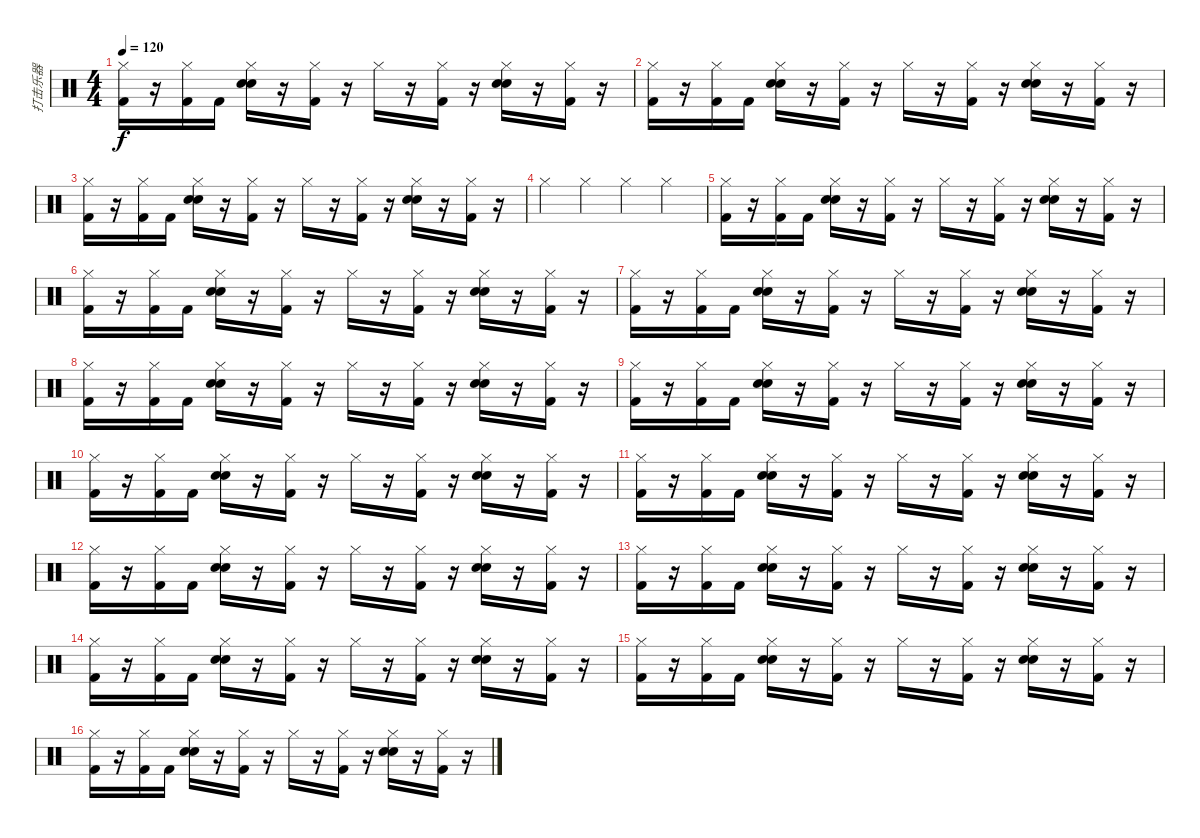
\track ("打击乐器" "打击乐器") {instrument percussion}
\staff {score}
\articulation defaults
\ts (4 4)
\tempo 120
\clef neutral
\ks c
("Hi-Hat (closed)" "Kick (hit) 2").16{dy f} r.16 ("Hi-Hat (closed)" "Kick (hit) 2").16 "Kick (hit) 2".16 ("Hi-Hat (closed)" "Electric Snare (hit)" "Snare (hit) 2").16 r.16 ("Hi-Hat (closed)" "Kick (hit) 2").16 r.16 "Hi-Hat (closed)".16 r.16 ("Hi-Hat (closed)" "Kick (hit) 2").16 r.16 ("Hi-Hat (closed)" "Electric Snare (hit)" "Snare (hit) 2").16 r.16 ("Hi-Hat (closed)" "Kick (hit) 2").16 r.16 |
("Hi-Hat (closed)" "Kick (hit) 2").16 r.16 ("Hi-Hat (closed)" "Kick (hit) 2").16 "Kick (hit) 2".16 ("Hi-Hat (closed)" "Electric Snare (hit)" "Snare (hit) 2").16 r.16 ("Hi-Hat (closed)" "Kick (hit) 2").16 r.16 "Hi-Hat (closed)".16 r.16 ("Hi-Hat (closed)" "Kick (hit) 2").16 r.16 ("Hi-Hat (closed)" "Electric Snare (hit)" "Snare (hit) 2").16 r.16 ("Hi-Hat (closed)" "Kick (hit) 2").16 r.16 |
("Hi-Hat (closed)" "Kick (hit) 2").16 r.16 ("Hi-Hat (closed)" "Kick (hit) 2").16 "Kick (hit) 2".16 ("Hi-Hat (closed)" "Electric Snare (hit)" "Snare (hit) 2").16 r.16 ("Hi-Hat (closed)" "Kick (hit) 2").16 r.16 "Hi-Hat (closed)".16 r.16 ("Hi-Hat (closed)" "Kick (hit) 2").16 r.16 ("Hi-Hat (closed)" "Electric Snare (hit)" "Snare (hit) 2").16 r.16 ("Hi-Hat (closed)" "Kick (hit) 2").16 r.16 |
"Hi-Hat (closed)".4 "Hi-Hat (closed)".4 "Hi-Hat (closed)".4 "Hi-Hat (closed)".4 |
("Hi-Hat (closed)" "Kick (hit) 2").16 r.16 ("Hi-Hat (closed)" "Kick (hit) 2").16 "Kick (hit) 2".16 ("Hi-Hat (closed)" "Electric Snare (hit)" "Snare (hit) 2").16 r.16 ("Hi-Hat (closed)" "Kick (hit) 2").16 r.16 "Hi-Hat (closed)".16 r.16 ("Hi-Hat (closed)" "Kick (hit) 2").16 r.16 ("Hi-Hat (closed)" "Electric Snare (hit)" "Snare (hit) 2").16 r.16 ("Hi-Hat (closed)" "Kick (hit) 2").16 r.16 |
("Hi-Hat (closed)" "Kick (hit) 2").16 r.16 ("Hi-Hat (closed)" "Kick (hit) 2").16 "Kick (hit) 2".16 ("Hi-Hat (closed)" "Electric Snare (hit)" "Snare (hit) 2").16 r.16 ("Hi-Hat (closed)" "Kick (hit) 2").16 r.16 "Hi-Hat (closed)".16 r.16 ("Hi-Hat (closed)" "Kick (hit) 2").16 r.16 ("Hi-Hat (closed)" "Electric Snare (hit)" "Snare (hit) 2").16 r.16 ("Hi-Hat (closed)" "Kick (hit) 2").16 r.16 |
("Hi-Hat (closed)" "Kick (hit) 2").16 r.16 ("Hi-Hat (closed)" "Kick (hit) 2").16 "Kick (hit) 2".16 ("Hi-Hat (closed)" "Electric Snare (hit)" "Snare (hit) 2").16 r.16 ("Hi-Hat (closed)" "Kick (hit) 2").16 r.16 "Hi-Hat (closed)".16 r.16 ("Hi-Hat (closed)" "Kick (hit) 2").16 r.16 ("Hi-Hat (closed)" "Electric Snare (hit)" "Snare (hit) 2").16 r.16 ("Hi-Hat (closed)" "Kick (hit) 2").16 r.16 |
("Hi-Hat (closed)" "Kick (hit) 2").16 r.16 ("Hi-Hat (closed)" "Kick (hit) 2").16 "Kick (hit) 2".16 ("Hi-Hat (closed)" "Electric Snare (hit)" "Snare (hit) 2").16 r.16 ("Hi-Hat (closed)" "Kick (hit) 2").16 r.16 "Hi-Hat (closed)".16 r.16 ("Hi-Hat (closed)" "Kick (hit) 2").16 r.16 ("Hi-Hat (closed)" "Electric Snare (hit)" "Snare (hit) 2").16 r.16 ("Hi-Hat (closed)" "Kick (hit) 2").16 r.16 |
("Hi-Hat (closed)" "Kick (hit) 2").16 r.16 ("Hi-Hat (closed)" "Kick (hit) 2").16 "Kick (hit) 2".16 ("Hi-Hat (closed)" "Electric Snare (hit)" "Snare (hit) 2").16 r.16 ("Hi-Hat (closed)" "Kick (hit) 2").16 r.16 "Hi-Hat (closed)".16 r.16 ("Hi-Hat (closed)" "Kick (hit) 2").16 r.16 ("Hi-Hat (closed)" "Electric Snare (hit)" "Snare (hit) 2").16 r.16 ("Hi-Hat (closed)" "Kick (hit) 2").16 r.16 |
("Hi-Hat (closed)" "Kick (hit) 2").16 r.16 ("Hi-Hat (closed)" "Kick (hit) 2").16 "Kick (hit) 2".16 ("Hi-Hat (closed)" "Electric Snare (hit)" "Snare (hit) 2").16 r.16 ("Hi-Hat (closed)" "Kick (hit) 2").16 r.16 "Hi-Hat (closed)".16 r.16 ("Hi-Hat (closed)" "Kick (hit) 2").16 r.16 ("Hi-Hat (closed)" "Electric Snare (hit)" "Snare (hit) 2").16 r.16 ("Hi-Hat (closed)" "Kick (hit) 2").16 r.16 |
("Hi-Hat (closed)" "Kick (hit) 2").16 r.16 ("Hi-Hat (closed)" "Kick (hit) 2").16 "Kick (hit) 2".16 ("Hi-Hat (closed)" "Electric Snare (hit)" "Snare (hit) 2").16 r.16 ("Hi-Hat (closed)" "Kick (hit) 2").16 r.16 "Hi-Hat (closed)".16 r.16 ("Hi-Hat (closed)" "Kick (hit) 2").16 r.16 ("Hi-Hat (closed)" "Electric Snare (hit)" "Snare (hit) 2").16 r.16 ("Hi-Hat (closed)" "Kick (hit) 2").16 r.16 |
("Hi-Hat (closed)" "Kick (hit) 2").16 r.16 ("Hi-Hat (closed)" "Kick (hit) 2").16 "Kick (hit) 2".16 ("Hi-Hat (closed)" "Electric Snare (hit)" "Snare (hit) 2").16 r.16 ("Hi-Hat (closed)" "Kick (hit) 2").16 r.16 "Hi-Hat (closed)".16 r.16 ("Hi-Hat (closed)" "Kick (hit) 2").16 r.16 ("Hi-Hat (closed)" "Electric Snare (hit)" "Snare (hit) 2").16 r.16 ("Hi-Hat (closed)" "Kick (hit) 2").16 r.16 |
("Hi-Hat (closed)" "Kick (hit) 2").16 r.16 ("Hi-Hat (closed)" "Kick (hit) 2").16 "Kick (hit) 2".16 ("Hi-Hat (closed)" "Electric Snare (hit)" "Snare (hit) 2").16 r.16 ("Hi-Hat (closed)" "Kick (hit) 2").16 r.16 "Hi-Hat (closed)".16 r.16 ("Hi-Hat (closed)" "Kick (hit) 2").16 r.16 ("Hi-Hat (closed)" "Electric Snare (hit)" "Snare (hit) 2").16 r.16 ("Hi-Hat (closed)" "Kick (hit) 2").16 r.16 |
("Hi-Hat (closed)" "Kick (hit) 2").16 r.16 ("Hi-Hat (closed)" "Kick (hit) 2").16 "Kick (hit) 2".16 ("Hi-Hat (closed)" "Electric Snare (hit)" "Snare (hit) 2").16 r.16 ("Hi-Hat (closed)" "Kick (hit) 2").16 r.16 "Hi-Hat (closed)".16 r.16 ("Hi-Hat (closed)" "Kick (hit) 2").16 r.16 ("Hi-Hat (closed)" "Electric Snare (hit)" "Snare (hit) 2").16 r.16 ("Hi-Hat (closed)" "Kick (hit) 2").16 r.16 |
("Hi-Hat (closed)" "Kick (hit) 2").16 r.16 ("Hi-Hat (closed)" "Kick (hit) 2").16 "Kick (hit) 2".16 ("Hi-Hat (closed)" "Electric Snare (hit)" "Snare (hit) 2").16 r.16 ("Hi-Hat (closed)" "Kick (hit) 2").16 r.16 "Hi-Hat (closed)".16 r.16 ("Hi-Hat (closed)" "Kick (hit) 2").16 r.16 ("Hi-Hat (closed)" "Electric Snare (hit)" "Snare (hit) 2").16 r.16 ("Hi-Hat (closed)" "Kick (hit) 2").16 r.16 |
("Hi-Hat (closed)" "Kick (hit) 2").16 r.16 ("Hi-Hat (closed)" "Kick (hit) 2").16 "Kick (hit) 2".16 ("Hi-Hat (closed)" "Electric Snare (hit)" "Snare (hit) 2").16 r.16 ("Hi-Hat (closed)" "Kick (hit) 2").16 r.16 "Hi-Hat (closed)".16 r.16 ("Hi-Hat (closed)" "Kick (hit) 2").16 r.16 ("Hi-Hat (closed)" "Electric Snare (hit)" "Snare (hit) 2").16 r.16 ("Hi-Hat (closed)" "Kick (hit) 2").16 r.16
